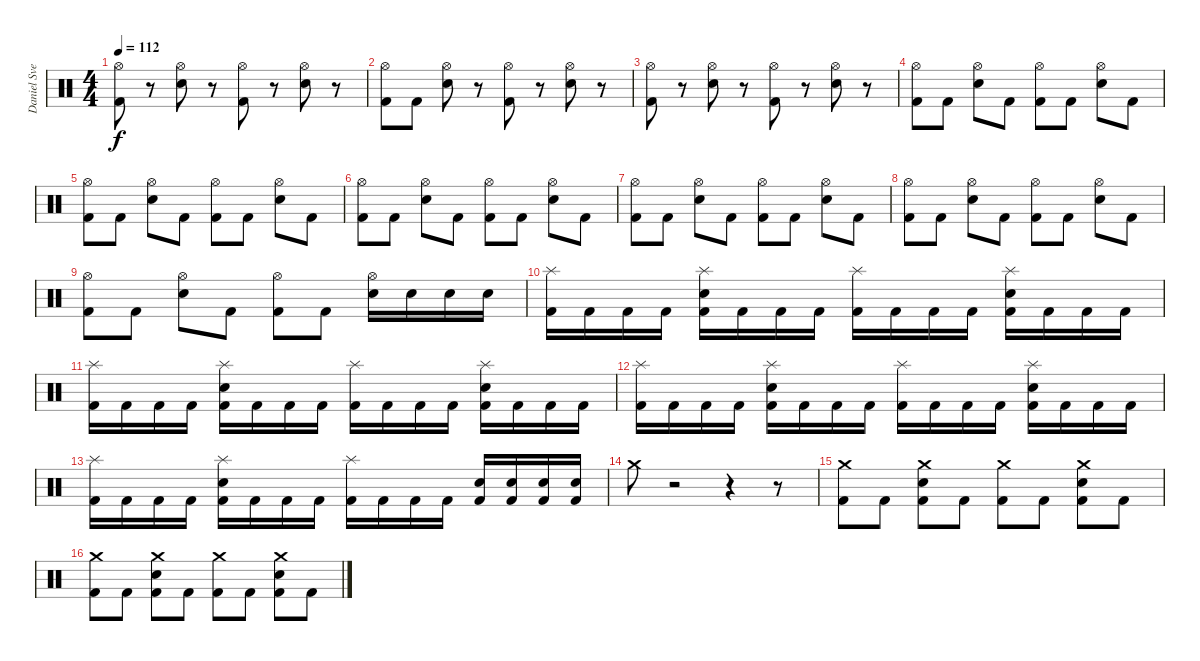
\track ("Daniel Svensson" "Daniel Sve") {instrument percussion}
\staff {score}
\articulation defaults
\ts (4 4)
\tempo 112
\clef neutral
\ks c
("Hi-Hat (open)" "Kick (hit) 2").8{dy f} r.8 ("Hi-Hat (open)" "Snare (hit) 2").8 r.8 ("Hi-Hat (open)" "Kick (hit) 2").8 r.8 ("Hi-Hat (open)" "Snare (hit) 2").8 r.8 |
("Hi-Hat (open)" "Kick (hit) 2").8 "Kick (hit) 2".8 ("Hi-Hat (open)" "Snare (hit) 2").8 r.8 ("Hi-Hat (open)" "Kick (hit) 2").8 r.8 ("Hi-Hat (open)" "Snare (hit) 2").8 r.8 |
("Hi-Hat (open)" "Kick (hit) 2").8 r.8 ("Hi-Hat (open)" "Snare (hit) 2").8 r.8 ("Hi-Hat (open)" "Kick (hit) 2").8 r.8 ("Hi-Hat (open)" "Snare (hit) 2").8 r.8 |
("Hi-Hat (open)" "Kick (hit) 2").8 "Kick (hit) 2".8 ("Hi-Hat (open)" "Snare (hit) 2").8 "Kick (hit) 2".8 ("Hi-Hat (open)" "Kick (hit) 2").8 "Kick (hit) 2".8 ("Hi-Hat (open)" "Snare (hit) 2").8 "Kick (hit) 2".8 |
("Hi-Hat (open)" "Kick (hit) 2").8 "Kick (hit) 2".8 ("Hi-Hat (open)" "Snare (hit) 2").8 "Kick (hit) 2".8 ("Hi-Hat (open)" "Kick (hit) 2").8 "Kick (hit) 2".8 ("Hi-Hat (open)" "Snare (hit) 2").8 "Kick (hit) 2".8 |
("Hi-Hat (open)" "Kick (hit) 2").8 "Kick (hit) 2".8 ("Hi-Hat (open)" "Snare (hit) 2").8 "Kick (hit) 2".8 ("Hi-Hat (open)" "Kick (hit) 2").8 "Kick (hit) 2".8 ("Hi-Hat (open)" "Snare (hit) 2").8 "Kick (hit) 2".8 |
("Hi-Hat (open)" "Kick (hit) 2").8 "Kick (hit) 2".8 ("Hi-Hat (open)" "Snare (hit) 2").8 "Kick (hit) 2".8 ("Hi-Hat (open)" "Kick (hit) 2").8 "Kick (hit) 2".8 ("Hi-Hat (open)" "Snare (hit) 2").8 "Kick (hit) 2".8 |
("Hi-Hat (open)" "Kick (hit) 2").8 "Kick (hit) 2".8 ("Hi-Hat (open)" "Snare (hit) 2").8 "Kick (hit) 2".8 ("Hi-Hat (open)" "Kick (hit) 2").8 "Kick (hit) 2".8 ("Hi-Hat (open)" "Snare (hit) 2").8 "Kick (hit) 2".8 |
("Hi-Hat (open)" "Kick (hit) 2").8 "Kick (hit) 2".8 ("Hi-Hat (open)" "Snare (hit) 2").8 "Kick (hit) 2".8 ("Hi-Hat (open)" "Kick (hit) 2").8 "Kick (hit) 2".8 ("Hi-Hat (open)" "Snare (hit) 2").16 "Snare (hit) 2".16 "Snare (hit) 2".16 "Snare (hit) 2".16 |
("Splash (hit)" "Kick (hit) 2").16 "Kick (hit) 2".16 "Kick (hit) 2".16 "Kick (hit) 2".16 ("Splash (hit)" "Snare (hit) 2" "Kick (hit) 2").16 "Kick (hit) 2".16 "Kick (hit) 2".16 "Kick (hit) 2".16 ("Splash (hit)" "Kick (hit) 2").16 "Kick (hit) 2".16 "Kick (hit) 2".16 "Kick (hit) 2".16 ("Splash (hit)" "Snare (hit) 2" "Kick (hit) 2").16 "Kick (hit) 2".16 "Kick (hit) 2".16 "Kick (hit) 2".16 |
("Splash (hit)" "Kick (hit) 2").16 "Kick (hit) 2".16 "Kick (hit) 2".16 "Kick (hit) 2".16 ("Splash (hit)" "Snare (hit) 2" "Kick (hit) 2").16 "Kick (hit) 2".16 "Kick (hit) 2".16 "Kick (hit) 2".16 ("Splash (hit)" "Kick (hit) 2").16 "Kick (hit) 2".16 "Kick (hit) 2".16 "Kick (hit) 2".16 ("Splash (hit)" "Snare (hit) 2" "Kick (hit) 2").16 "Kick (hit) 2".16 "Kick (hit) 2".16 "Kick (hit) 2".16 |
("Splash (hit)" "Kick (hit) 2").16 "Kick (hit) 2".16 "Kick (hit) 2".16 "Kick (hit) 2".16 ("Splash (hit)" "Snare (hit) 2" "Kick (hit) 2").16 "Kick (hit) 2".16 "Kick (hit) 2".16 "Kick (hit) 2".16 ("Splash (hit)" "Kick (hit) 2").16 "Kick (hit) 2".16 "Kick (hit) 2".16 "Kick (hit) 2".16 ("Splash (hit)" "Snare (hit) 2" "Kick (hit) 2").16 "Kick (hit) 2".16 "Kick (hit) 2".16 "Kick (hit) 2".16 |
("Splash (hit)" "Kick (hit) 2").16 "Kick (hit) 2".16 "Kick (hit) 2".16 "Kick (hit) 2".16 ("Splash (hit)" "Snare (hit) 2" "Kick (hit) 2").16 "Kick (hit) 2".16 "Kick (hit) 2".16 "Kick (hit) 2".16 ("Splash (hit)" "Kick (hit) 2").16 "Kick (hit) 2".16 "Kick (hit) 2".16 "Kick (hit) 2".16 ("Snare (hit) 2" "Kick (hit) 2").16 ("Snare (hit) 2" "Kick (hit) 2").16 ("Snare (hit) 2" "Kick (hit) 2").16 ("Snare (hit) 2" "Kick (hit) 2").16 |
"Crash medium (hit)".8 r.2 r.4 r.8 |
("Crash medium (hit)" "Kick (hit) 2").8 "Kick (hit) 2".8 ("Crash medium (hit)" "Snare (hit) 2" "Kick (hit) 2").8 "Kick (hit) 2".8 ("Crash medium (hit)" "Kick (hit) 2").8 "Kick (hit) 2".8 ("Crash medium (hit)" "Snare (hit) 2" "Kick (hit) 2").8 "Kick (hit) 2".8 |
("Crash medium (hit)" "Kick (hit) 2").8 "Kick (hit) 2".8 ("Crash medium (hit)" "Snare (hit) 2" "Kick (hit) 2").8 "Kick (hit) 2".8 ("Crash medium (hit)" "Kick (hit) 2").8 "Kick (hit) 2".8 ("Crash medium (hit)" "Snare (hit) 2" "Kick (hit) 2").8 "Kick (hit) 2".8
